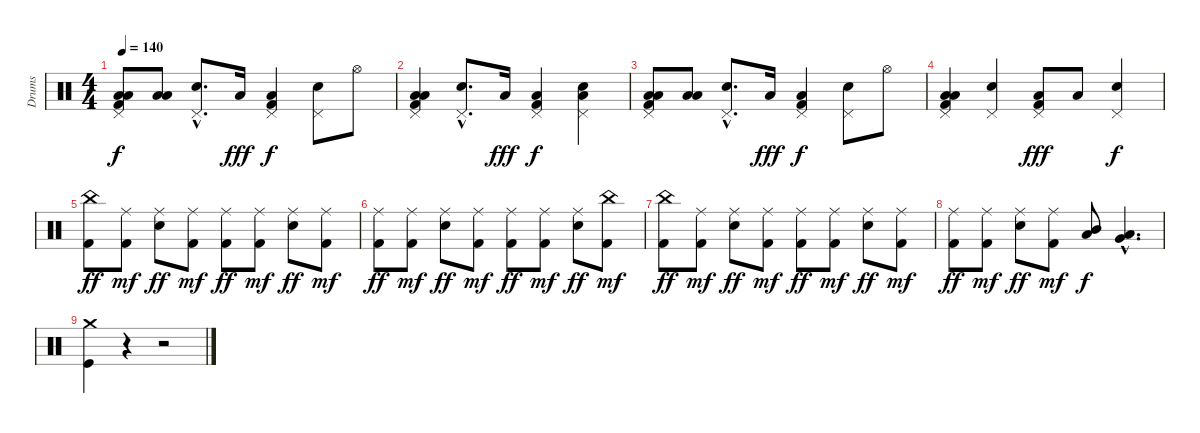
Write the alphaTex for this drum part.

\track ("Drums" "Drums") {instrument percussion}
\staff {score}
\articulation defaults
\ts (4 4)
\tempo 140
\clef neutral
\ks c
("Kick (hit) 2" "Low Tom (hit)" "Low Floor Tom (hit)" "Pedal Hi-Hat (hit)").8{dy f} ("Low Tom (hit)" "Low Floor Tom (hit)").8 ("Snare (hit) 2"{hac} "Pedal Hi-Hat (hit)"{hac}).8{d} "Low Floor Tom (hit)".16{dy fff} ("Kick (hit) 2" "Low Floor Tom (hit)" "Pedal Hi-Hat (hit)").4{dy f} ("Snare (hit) 2" "Pedal Hi-Hat (hit)").8 "Hi-Hat (open)".8 |
("Kick (hit) 2" "Low Floor Tom (hit)" "Low Tom (hit)" "Pedal Hi-Hat (hit)").4 ("Snare (hit) 2"{hac} "Pedal Hi-Hat (hit)"{hac}).8{d} "Low Floor Tom (hit)".16{dy fff} ("Kick (hit) 2" "Low Floor Tom (hit)" "Pedal Hi-Hat (hit)").4{dy f} ("Snare (hit) 2" "Low Floor Tom (hit)" "Pedal Hi-Hat (hit)").4 |
("Kick (hit) 2" "Low Tom (hit)" "Low Floor Tom (hit)" "Pedal Hi-Hat (hit)").8 ("Low Tom (hit)" "Low Floor Tom (hit)").8 ("Snare (hit) 2"{hac} "Pedal Hi-Hat (hit)"{hac}).8{d} "Low Floor Tom (hit)".16{dy fff} ("Kick (hit) 2" "Low Floor Tom (hit)" "Pedal Hi-Hat (hit)").4{dy f} ("Snare (hit) 2" "Pedal Hi-Hat (hit)").8 "Hi-Hat (open)".8 |
("Kick (hit) 2" "Low Floor Tom (hit)" "Low Tom (hit)" "Pedal Hi-Hat (hit)").4 ("Snare (hit) 2" "Pedal Hi-Hat (hit)").4 ("Kick (hit) 2" "Low Floor Tom (hit)" "Pedal Hi-Hat (hit)").8{dy fff} "Low Floor Tom (hit)".8 ("Snare (hit) 2" "Pedal Hi-Hat (hit)").4{dy f} |
("China (hit)" "Kick (hit) 2").8{dy ff} ("Ride (middle)" "Kick (hit) 2").8{dy mf} ("Ride (middle)" "Snare (hit) 2").8{dy ff} ("Ride (middle)" "Kick (hit) 2").8{dy mf} ("Ride (middle)" "Kick (hit) 2").8{dy ff} ("Ride (middle)" "Kick (hit) 2").8{dy mf} ("Ride (middle)" "Snare (hit) 2").8{dy ff} ("Ride (middle)" "Kick (hit) 2").8{dy mf} |
("Ride (middle)" "Kick (hit) 2").8{dy ff} ("Ride (middle)" "Kick (hit) 2").8{dy mf} ("Ride (middle)" "Snare (hit) 2").8{dy ff} ("Ride (middle)" "Kick (hit) 2").8{dy mf} ("Ride (middle)" "Kick (hit) 2").8{dy ff} ("Ride (middle)" "Kick (hit) 2").8{dy mf} ("Ride (middle)" "Snare (hit) 2").8{dy ff} ("China (hit)" "Kick (hit) 2").8{dy mf} |
("China (hit)" "Kick (hit) 2").8{dy ff} ("Ride (middle)" "Kick (hit) 2").8{dy mf} ("Ride (middle)" "Snare (hit) 2").8{dy ff} ("Ride (middle)" "Kick (hit) 2").8{dy mf} ("Ride (middle)" "Kick (hit) 2").8{dy ff} ("Ride (middle)" "Kick (hit) 2").8{dy mf} ("Ride (middle)" "Snare (hit) 2").8{dy ff} ("Ride (middle)" "Kick (hit) 2").8{dy mf} |
("Ride (middle)" "Kick (hit) 2").8{dy ff} ("Ride (middle)" "Kick (hit) 2").8{dy mf} ("Ride (middle)" "Snare (hit) 2").8{dy ff} ("Ride (middle)" "Kick (hit) 2").8{dy mf} ("Mid Tom (hit)" "Low Tom (hit)").8{dy f} ("Very Low Tom (hit)"{hac} "Low Floor Tom (hit)"{hac}).4{d} |
("Crash medium (hit)" "Kick (hit)").4 r.4 r.2
